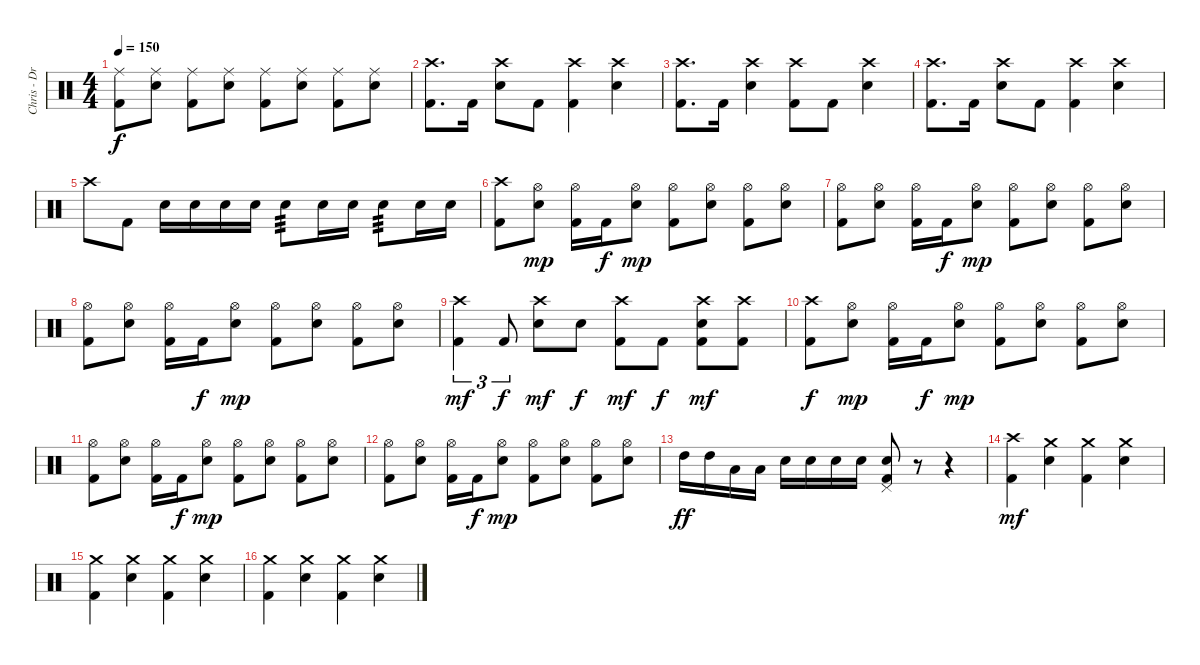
\track ("Chris - Drums" "Chris - Dr") {instrument percussion}
\staff {score}
\articulation defaults
\ts (4 4)
\tempo 150
\clef neutral
\ks c
("Ride (middle)" "Kick (hit) 2").8{dy f} ("Ride (middle)" "Electric Snare (hit)").8 ("Ride (middle)" "Kick (hit) 2").8 ("Ride (middle)" "Electric Snare (hit)").8 ("Ride (middle)" "Kick (hit) 2").8 ("Ride (middle)" "Electric Snare (hit)").8 ("Ride (middle)" "Kick (hit) 2").8 ("Ride (middle)" "Electric Snare (hit)").8 |
("Crash high (hit)" "Kick (hit) 2").8{d} "Kick (hit) 2".16 ("Crash high (hit)" "Electric Snare (hit)").8 "Kick (hit) 2".8 ("Crash high (hit)" "Kick (hit) 2").4 ("Crash high (hit)" "Electric Snare (hit)").4 |
("Crash high (hit)" "Kick (hit) 2").8{d} "Kick (hit) 2".16 ("Crash high (hit)" "Electric Snare (hit)").4 ("Crash high (hit)" "Kick (hit) 2").8 "Kick (hit) 2".8 ("Crash high (hit)" "Electric Snare (hit)").4 |
("Crash high (hit)" "Kick (hit) 2").8{d} "Kick (hit) 2".16 ("Crash high (hit)" "Electric Snare (hit)").8 "Kick (hit) 2".8 ("Crash high (hit)" "Kick (hit) 2").4 ("Crash high (hit)" "Electric Snare (hit)").4 |
"Crash high (hit)".8 "Kick (hit) 2".8 "Electric Snare (hit)".16 "Electric Snare (hit)".16 "Electric Snare (hit)".16 "Electric Snare (hit)".16 "Electric Snare (hit)".8{tp 3} "Electric Snare (hit)".16 "Electric Snare (hit)".16 "Electric Snare (hit)".8{tp 3} "Electric Snare (hit)".16 "Electric Snare (hit)".16 |
("Crash high (hit)" "Kick (hit) 2").8 ("Hi-Hat (open)" "Electric Snare (hit)").8{dy mp} ("Hi-Hat (open)" "Kick (hit) 2").16 "Kick (hit) 2".16{dy f} ("Hi-Hat (open)" "Electric Snare (hit)").8{dy mp} ("Hi-Hat (open)" "Kick (hit) 2").8 ("Hi-Hat (open)" "Electric Snare (hit)").8 ("Hi-Hat (open)" "Kick (hit) 2").8 ("Hi-Hat (open)" "Electric Snare (hit)").8 |
("Hi-Hat (open)" "Kick (hit) 2").8 ("Hi-Hat (open)" "Electric Snare (hit)").8 ("Hi-Hat (open)" "Kick (hit) 2").16 "Kick (hit) 2".16{dy f} ("Hi-Hat (open)" "Electric Snare (hit)").8{dy mp} ("Hi-Hat (open)" "Kick (hit) 2").8 ("Hi-Hat (open)" "Electric Snare (hit)").8 ("Hi-Hat (open)" "Kick (hit) 2").8 ("Hi-Hat (open)" "Electric Snare (hit)").8 |
("Hi-Hat (open)" "Kick (hit) 2").8 ("Hi-Hat (open)" "Electric Snare (hit)").8 ("Hi-Hat (open)" "Kick (hit) 2").16 "Kick (hit) 2".16{dy f} ("Hi-Hat (open)" "Electric Snare (hit)").8{dy mp} ("Hi-Hat (open)" "Kick (hit) 2").8 ("Hi-Hat (open)" "Electric Snare (hit)").8 ("Hi-Hat (open)" "Kick (hit) 2").8 ("Hi-Hat (open)" "Electric Snare (hit)").8 |
("Crash high (hit)" "Kick (hit) 2").4{tu (3 2) dy mf} "Kick (hit) 2".8{tu (3 2) dy f} ("Crash high (hit)" "Electric Snare (hit)").8{dy mf} "Electric Snare (hit)".8{dy f} ("Crash high (hit)" "Kick (hit) 2").8{dy mf} "Kick (hit) 2".8{dy f} ("Crash high (hit)" "Electric Snare (hit)" "Kick (hit) 2").8{dy mf} ("Crash high (hit)" "Kick (hit) 2").8 |
("Crash high (hit)" "Kick (hit) 2").8{dy f} ("Hi-Hat (open)" "Electric Snare (hit)").8{dy mp} ("Hi-Hat (open)" "Kick (hit) 2").16 "Kick (hit) 2".16{dy f} ("Hi-Hat (open)" "Electric Snare (hit)").8{dy mp} ("Hi-Hat (open)" "Kick (hit) 2").8 ("Hi-Hat (open)" "Electric Snare (hit)").8 ("Hi-Hat (open)" "Kick (hit) 2").8 ("Hi-Hat (open)" "Electric Snare (hit)").8 |
("Hi-Hat (open)" "Kick (hit) 2").8 ("Hi-Hat (open)" "Electric Snare (hit)").8 ("Hi-Hat (open)" "Kick (hit) 2").16 "Kick (hit) 2".16{dy f} ("Hi-Hat (open)" "Electric Snare (hit)").8{dy mp} ("Hi-Hat (open)" "Kick (hit) 2").8 ("Hi-Hat (open)" "Electric Snare (hit)").8 ("Hi-Hat (open)" "Kick (hit) 2").8 ("Hi-Hat (open)" "Electric Snare (hit)").8 |
("Hi-Hat (open)" "Kick (hit) 2").8 ("Hi-Hat (open)" "Electric Snare (hit)").8 ("Hi-Hat (open)" "Kick (hit) 2").16 "Kick (hit) 2".16{dy f} ("Hi-Hat (open)" "Electric Snare (hit)").8{dy mp} ("Hi-Hat (open)" "Kick (hit) 2").8 ("Hi-Hat (open)" "Electric Snare (hit)").8 ("Hi-Hat (open)" "Kick (hit) 2").8 ("Hi-Hat (open)" "Electric Snare (hit)").8 |
"High Tom (hit)".16{dy ff} "High Tom (hit)".16 "Low Tom (hit)".16 "Low Tom (hit)".16 "Electric Snare (hit)".16 "Electric Snare (hit)".16 "Electric Snare (hit)".16 "Electric Snare (hit)".16 ("Pedal Hi-Hat (hit)" "Electric Snare (hit)" "Kick (hit) 2").8 r.8 r.4 |
("Crash high (hit)" "Kick (hit) 2").4{dy mf} ("Crash medium (hit)" "Electric Snare (hit)").4 ("Crash medium (hit)" "Kick (hit) 2").4 ("Crash medium (hit)" "Electric Snare (hit)").4 |
("Crash medium (hit)" "Kick (hit) 2").4 ("Crash medium (hit)" "Electric Snare (hit)").4 ("Crash medium (hit)" "Kick (hit) 2").4 ("Crash medium (hit)" "Electric Snare (hit)").4 |
("Crash medium (hit)" "Kick (hit) 2").4 ("Crash medium (hit)" "Electric Snare (hit)").4 ("Crash medium (hit)" "Kick (hit) 2").4 ("Crash medium (hit)" "Electric Snare (hit)").4
